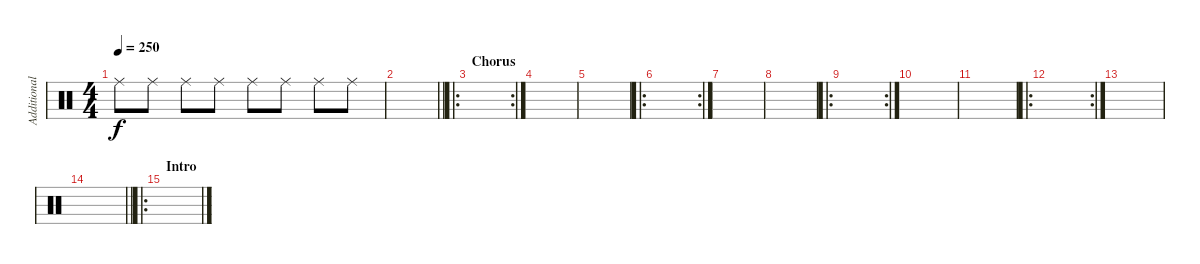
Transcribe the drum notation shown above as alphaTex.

\track ("Additional drums" "Additional") {instrument percussion}
\staff {score}
\articulation defaults
\ts (4 4)
\tempo 250
\clef neutral
\ks c "Ride (middle)".8{dy f} "Ride (middle)".8 "Ride (middle)".8 "Ride (middle)".8 "Ride (middle)".8 "Ride (middle)".8 "Ride (middle)".8 "Ride (middle)".8
|
\barLineRight lightlight
|
\ro
\rc 2
\section ("" "Chorus")
|
|
|
\ro
\rc 2
|
|
|
\ro
\rc 2
|
|
|
\ro
\rc 2
|
|
\barLineRight lightlight
|
\ro
\section ("" "Intro")
